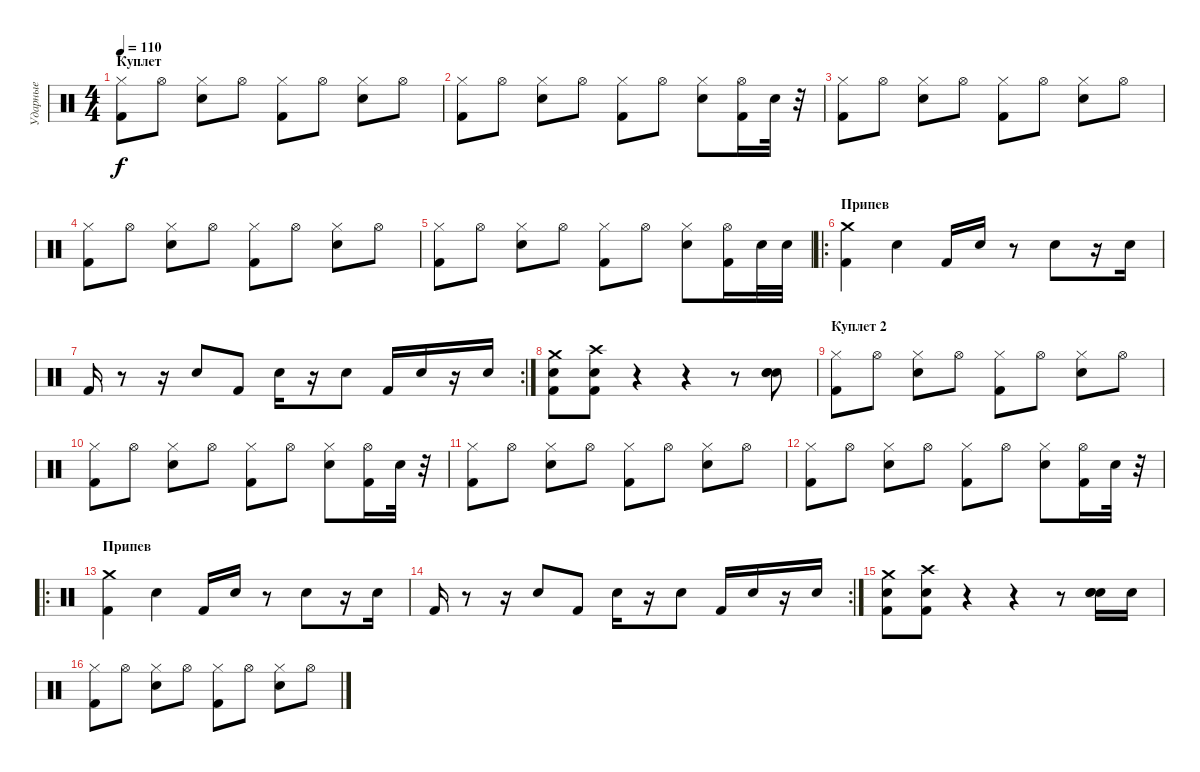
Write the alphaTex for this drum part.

\track ("Ударные" "Ударные") {instrument percussion}
\staff {score}
\articulation defaults
\ts (4 4)
\section ("" "Куплет")
\tempo 110
\clef neutral
\ks c
("Hi-Hat (closed)" "Kick (hit) 2").8{dy f} "Hi-Hat (open)".8 ("Hi-Hat (closed)" "Electric Snare (hit)").8 "Hi-Hat (open)".8 ("Hi-Hat (closed)" "Kick (hit) 2").8 "Hi-Hat (open)".8 ("Hi-Hat (closed)" "Electric Snare (hit)").8 "Hi-Hat (open)".8 |
("Hi-Hat (closed)" "Kick (hit) 2").8 "Hi-Hat (open)".8 ("Hi-Hat (closed)" "Electric Snare (hit)").8 "Hi-Hat (open)".8 ("Hi-Hat (closed)" "Kick (hit) 2").8 "Hi-Hat (open)".8 ("Hi-Hat (closed)" "Electric Snare (hit)").8 ("Hi-Hat (open)" "Kick (hit) 2").16 "Electric Snare (hit)".32 r.32 |
("Hi-Hat (closed)" "Kick (hit) 2").8 "Hi-Hat (open)".8 ("Hi-Hat (closed)" "Electric Snare (hit)").8 "Hi-Hat (open)".8 ("Hi-Hat (closed)" "Kick (hit) 2").8 "Hi-Hat (open)".8 ("Hi-Hat (closed)" "Electric Snare (hit)").8 "Hi-Hat (open)".8 |
("Hi-Hat (closed)" "Kick (hit) 2").8 "Hi-Hat (open)".8 ("Hi-Hat (closed)" "Electric Snare (hit)").8 "Hi-Hat (open)".8 ("Hi-Hat (closed)" "Kick (hit) 2").8 "Hi-Hat (open)".8 ("Hi-Hat (closed)" "Electric Snare (hit)").8 "Hi-Hat (open)".8 |
("Hi-Hat (closed)" "Kick (hit) 2").8 "Hi-Hat (open)".8 ("Hi-Hat (closed)" "Electric Snare (hit)").8 "Hi-Hat (open)".8 ("Hi-Hat (closed)" "Kick (hit) 2").8 "Hi-Hat (open)".8 ("Hi-Hat (closed)" "Electric Snare (hit)").8 ("Hi-Hat (open)" "Kick (hit) 2").16 "Electric Snare (hit)".32 "Electric Snare (hit)".32 |
\ro
\section ("" "Припев")
("Kick (hit) 2" "Crash medium (hit)").4 "Electric Snare (hit)".4 "Kick (hit) 2".16 "Electric Snare (hit)".16 r.8 "Electric Snare (hit)".8 r.16 "Electric Snare (hit)".16 |
\rc 2 "Kick (hit) 2".16
r.8 r.16 "Electric Snare (hit)".8 "Kick (hit) 2".8 "Electric Snare (hit)".16 r.16 "Electric Snare (hit)".8 "Kick (hit) 2".16 "Electric Snare (hit)".16 r.16 "Electric Snare (hit)".16 |
("Crash medium (hit)" "Kick (hit) 2" "Electric Snare (hit)").8 ("Crash high (hit)" "Kick (hit) 2" "Electric Snare (hit)").8 r.4 r.4 r.8 ("Electric Snare (hit)" "Electric Snare (hit)" "Electric Snare (hit)").8 |
\section ("" "Куплет 2")
("Hi-Hat (closed)" "Kick (hit) 2").8 "Hi-Hat (open)".8 ("Hi-Hat (closed)" "Electric Snare (hit)").8 "Hi-Hat (open)".8 ("Hi-Hat (closed)" "Kick (hit) 2").8 "Hi-Hat (open)".8 ("Hi-Hat (closed)" "Electric Snare (hit)").8 "Hi-Hat (open)".8 |
("Hi-Hat (closed)" "Kick (hit) 2").8 "Hi-Hat (open)".8 ("Hi-Hat (closed)" "Electric Snare (hit)").8 "Hi-Hat (open)".8 ("Hi-Hat (closed)" "Kick (hit) 2").8 "Hi-Hat (open)".8 ("Hi-Hat (closed)" "Electric Snare (hit)").8 ("Hi-Hat (open)" "Kick (hit) 2").16 "Electric Snare (hit)".32 r.32 |
("Hi-Hat (closed)" "Kick (hit) 2").8 "Hi-Hat (open)".8 ("Hi-Hat (closed)" "Electric Snare (hit)").8 "Hi-Hat (open)".8 ("Hi-Hat (closed)" "Kick (hit) 2").8 "Hi-Hat (open)".8 ("Hi-Hat (closed)" "Electric Snare (hit)").8 "Hi-Hat (open)".8 |
("Hi-Hat (closed)" "Kick (hit) 2").8 "Hi-Hat (open)".8 ("Hi-Hat (closed)" "Electric Snare (hit)").8 "Hi-Hat (open)".8 ("Hi-Hat (closed)" "Kick (hit) 2").8 "Hi-Hat (open)".8 ("Hi-Hat (closed)" "Electric Snare (hit)").8 ("Hi-Hat (open)" "Kick (hit) 2").16 "Electric Snare (hit)".32 r.32 |
\ro
\section ("" "Припев")
("Kick (hit) 2" "Crash medium (hit)").4 "Electric Snare (hit)".4 "Kick (hit) 2".16 "Electric Snare (hit)".16 r.8 "Electric Snare (hit)".8 r.16 "Electric Snare (hit)".16 |
\rc 2 "Kick (hit) 2".16
r.8 r.16 "Electric Snare (hit)".8 "Kick (hit) 2".8 "Electric Snare (hit)".16 r.16 "Electric Snare (hit)".8 "Kick (hit) 2".16 "Electric Snare (hit)".16 r.16 "Electric Snare (hit)".16 |
("Crash medium (hit)" "Kick (hit) 2" "Electric Snare (hit)").8 ("Crash high (hit)" "Kick (hit) 2" "Electric Snare (hit)").8 r.4 r.4 r.8 ("Electric Snare (hit)" "Electric Snare (hit)" "Electric Snare (hit)").16 "Electric Snare (hit)".16 |
("Hi-Hat (closed)" "Kick (hit) 2").8 "Hi-Hat (open)".8 ("Hi-Hat (closed)" "Electric Snare (hit)").8 "Hi-Hat (open)".8 ("Hi-Hat (closed)" "Kick (hit) 2").8 "Hi-Hat (open)".8 ("Hi-Hat (closed)" "Electric Snare (hit)").8 "Hi-Hat (open)".8
